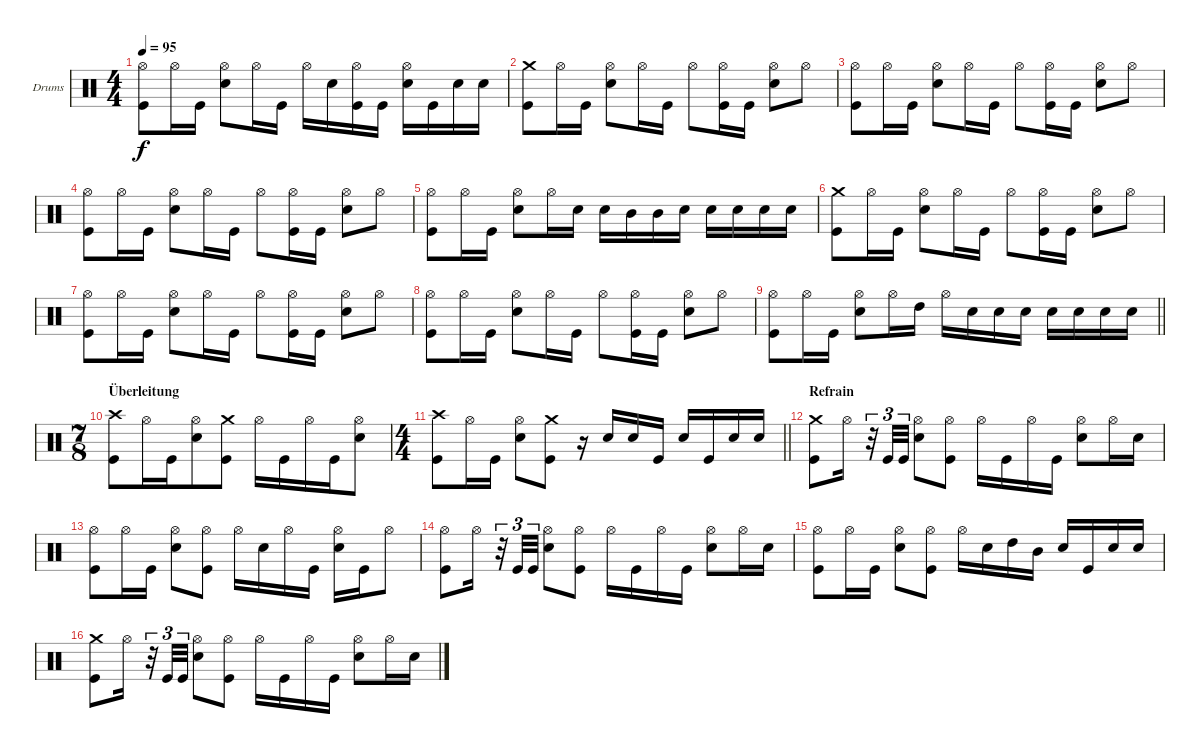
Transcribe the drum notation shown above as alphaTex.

\bracketExtendMode groupsimilarinstruments
\firstSystemTrackNameOrientation horizontal
\otherSystemsTrackNameOrientation horizontal
\track ("Drumkit" "Drums") {instrument percussion}
\staff {score}
\articulation defaults
\ts (4 4)
\tempo 95
\clef neutral
\ks c
("Hi-Hat (open)" "Kick (hit)").8{dy f} "Hi-Hat (open)".16 "Kick (hit)".16 ("Hi-Hat (open)" "Snare (hit) 2").8 "Hi-Hat (open)".16 "Kick (hit)".16 "Hi-Hat (open)".16 "Snare (hit) 2".16 ("Hi-Hat (open)" "Kick (hit)").16 "Kick (hit)".16 ("Hi-Hat (open)" "Snare (hit) 2").16 "Kick (hit)".16 "Snare (hit) 2".16 "Snare (hit) 2".16 |
("Crash medium (hit)" "Kick (hit)").8 "Hi-Hat (open)".16 "Kick (hit)".16 ("Hi-Hat (open)" "Snare (hit) 2").8 "Hi-Hat (open)".16 "Kick (hit)".16 "Hi-Hat (open)".8 ("Hi-Hat (open)" "Kick (hit)").16 "Kick (hit)".16 ("Hi-Hat (open)" "Snare (hit) 2").8 "Hi-Hat (open)".8 |
("Hi-Hat (open)" "Kick (hit)").8 "Hi-Hat (open)".16 "Kick (hit)".16 ("Hi-Hat (open)" "Snare (hit) 2").8 "Hi-Hat (open)".16 "Kick (hit)".16 "Hi-Hat (open)".8 ("Hi-Hat (open)" "Kick (hit)").16 "Kick (hit)".16 ("Hi-Hat (open)" "Snare (hit) 2").8 "Hi-Hat (open)".8 |
("Hi-Hat (open)" "Kick (hit)").8 "Hi-Hat (open)".16 "Kick (hit)".16 ("Hi-Hat (open)" "Snare (hit) 2").8 "Hi-Hat (open)".16 "Kick (hit)".16 "Hi-Hat (open)".8 ("Hi-Hat (open)" "Kick (hit)").16 "Kick (hit)".16 ("Hi-Hat (open)" "Snare (hit) 2").8 "Hi-Hat (open)".8 |
("Hi-Hat (open)" "Kick (hit)").8 "Hi-Hat (open)".16 "Kick (hit)".16 ("Hi-Hat (open)" "Snare (hit) 2").8 "Hi-Hat (open)".16 "Snare (hit) 2".16 "Snare (hit) 2".16 "Mid Tom (hit)".16 "Mid Tom (hit)".16 "Snare (hit) 2".16 "Snare (hit) 2".16 "Snare (hit) 2".16 "Snare (hit) 2".16 "Snare (hit) 2".16 |
("Crash medium (hit)" "Kick (hit)").8 "Hi-Hat (open)".16 "Kick (hit)".16 ("Hi-Hat (open)" "Snare (hit) 2").8 "Hi-Hat (open)".16 "Kick (hit)".16 "Hi-Hat (open)".8 ("Hi-Hat (open)" "Kick (hit)").16 "Kick (hit)".16 ("Hi-Hat (open)" "Snare (hit) 2").8 "Hi-Hat (open)".8 |
("Hi-Hat (open)" "Kick (hit)").8 "Hi-Hat (open)".16 "Kick (hit)".16 ("Hi-Hat (open)" "Snare (hit) 2").8 "Hi-Hat (open)".16 "Kick (hit)".16 "Hi-Hat (open)".8 ("Hi-Hat (open)" "Kick (hit)").16 "Kick (hit)".16 ("Hi-Hat (open)" "Snare (hit) 2").8 "Hi-Hat (open)".8 |
("Hi-Hat (open)" "Kick (hit)").8 "Hi-Hat (open)".16 "Kick (hit)".16 ("Hi-Hat (open)" "Snare (hit) 2").8 "Hi-Hat (open)".16 "Kick (hit)".16 "Hi-Hat (open)".8 ("Hi-Hat (open)" "Kick (hit)").16 "Kick (hit)".16 ("Hi-Hat (open)" "Snare (hit) 2").8 "Hi-Hat (open)".8 |
\barLineRight lightlight
("Hi-Hat (open)" "Kick (hit)").8 "Hi-Hat (open)".16 "Kick (hit)".16 ("Hi-Hat (open)" "Snare (hit) 2").8 "Hi-Hat (open)".16 "High Tom (hit)".16 "Hi-Hat (open)".16 "Snare (hit) 2".16 "Snare (hit) 2".16 "Snare (hit) 2".16 "Snare (hit) 2".16 "Snare (hit) 2".16 "Snare (hit) 2".16 "Snare (hit) 2".16 |
\ts (7 8)
\section ("" "Überleitung")
("Crash high (hit)" "Kick (hit)").8 "Hi-Hat (open)".16 "Kick (hit)".16 ("Hi-Hat (open)" "Snare (hit) 2").8 ("Crash medium (hit)" "Kick (hit)").8 "Hi-Hat (open)".16 "Kick (hit)".16 "Hi-Hat (open)".16 "Kick (hit)".16 ("Hi-Hat (open)" "Snare (hit) 2").8 |
\ts (4 4)
\barLineRight lightlight
("Crash high (hit)" "Kick (hit)").8 "Hi-Hat (open)".16 "Kick (hit)".16 ("Hi-Hat (open)" "Snare (hit) 2").8 ("Crash medium (hit)" "Kick (hit)").8 r.16 "Snare (hit) 2".16 "Snare (hit) 2".16 "Kick (hit)".16 "Snare (hit) 2".16 "Kick (hit)".16 "Snare (hit) 2".16 "Snare (hit) 2".16 |
\section ("" "Refrain")
("Crash medium (hit)" "Kick (hit)").8 "Hi-Hat (open)".16 r.32{tu (3 2)} "Kick (hit)".32{tu (3 2)} "Kick (hit)".32{tu (3 2)} ("Hi-Hat (open)" "Snare (hit) 2").8 ("Hi-Hat (open)" "Kick (hit)").8 "Hi-Hat (open)".16 "Kick (hit)".16 "Hi-Hat (open)".16 "Kick (hit)".16 ("Hi-Hat (open)" "Snare (hit) 2").8 "Hi-Hat (open)".16 "Snare (hit) 2".16 |
("Hi-Hat (open)" "Kick (hit)").8 "Hi-Hat (open)".16 "Kick (hit)".16 ("Hi-Hat (open)" "Snare (hit) 2").8 ("Hi-Hat (open)" "Kick (hit)").8 "Hi-Hat (open)".16 "Snare (hit) 2".16 "Hi-Hat (open)".16 "Kick (hit)".16 ("Hi-Hat (open)" "Snare (hit) 2").16 "Kick (hit)".16 "Hi-Hat (open)".8 |
("Hi-Hat (open)" "Kick (hit)").8 "Hi-Hat (open)".16 r.32{tu (3 2)} "Kick (hit)".32{tu (3 2)} "Kick (hit)".32{tu (3 2)} ("Hi-Hat (open)" "Snare (hit) 2").8 ("Hi-Hat (open)" "Kick (hit)").8 "Hi-Hat (open)".16 "Kick (hit)".16 "Hi-Hat (open)".16 "Kick (hit)".16 ("Hi-Hat (open)" "Snare (hit) 2").8 "Hi-Hat (open)".16 "Snare (hit) 2".16 |
("Hi-Hat (open)" "Kick (hit)").8 "Hi-Hat (open)".16 "Kick (hit)".16 ("Hi-Hat (open)" "Snare (hit) 2").8 ("Hi-Hat (open)" "Kick (hit)").8 "Hi-Hat (open)".16 "Snare (hit) 2".16 "High Tom (hit)".16 "Mid Tom (hit)".16 "Snare (hit) 2".16 "Kick (hit)".16 "Snare (hit) 2".16 "Snare (hit) 2".16 |
("Crash medium (hit)" "Kick (hit)").8 "Hi-Hat (open)".16 r.32{tu (3 2)} "Kick (hit)".32{tu (3 2)} "Kick (hit)".32{tu (3 2)} ("Hi-Hat (open)" "Snare (hit) 2").8 ("Hi-Hat (open)" "Kick (hit)").8 "Hi-Hat (open)".16 "Kick (hit)".16 "Hi-Hat (open)".16 "Kick (hit)".16 ("Hi-Hat (open)" "Snare (hit) 2").8 "Hi-Hat (open)".16 "Snare (hit) 2".16
